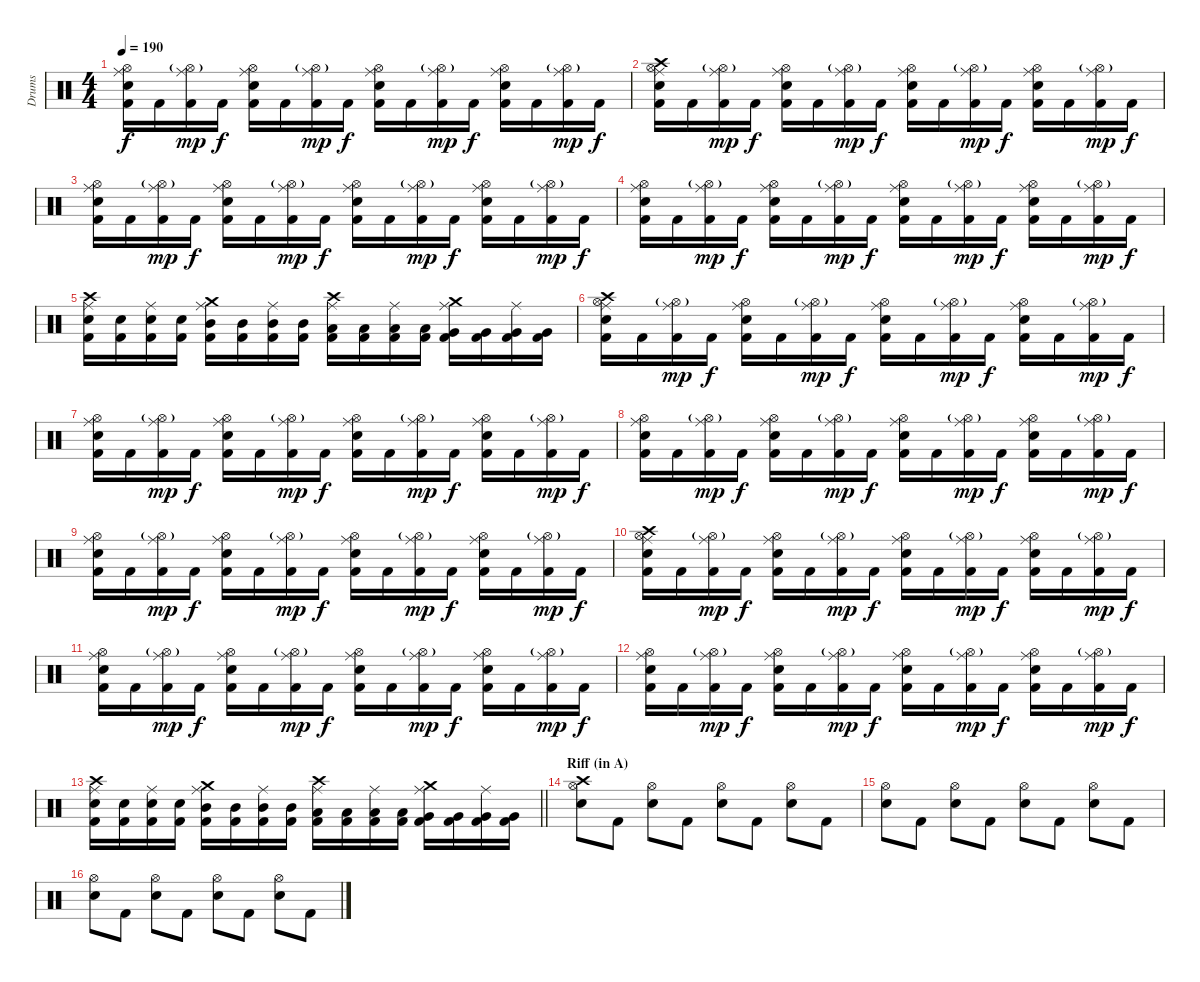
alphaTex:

\track ("Drums" "Drums") {instrument percussion}
\staff {score}
\articulation defaults
\ts (4 4)
\tempo 190
\clef neutral
\ks c
("Ride (middle)" "Hi-Hat (open)" "Snare (hit) 2" "Kick (hit) 2").16{dy f} "Kick (hit) 2".16 ("Ride (middle)" "Hi-Hat (open)"{g} "Kick (hit) 2").16{dy mp} "Kick (hit) 2".16{dy f} ("Ride (middle)" "Hi-Hat (open)" "Snare (hit) 2" "Kick (hit) 2").16 "Kick (hit) 2".16 ("Ride (middle)" "Hi-Hat (open)"{g} "Kick (hit) 2").16{dy mp} "Kick (hit) 2".16{dy f} ("Ride (middle)" "Hi-Hat (open)" "Snare (hit) 2" "Kick (hit) 2").16 "Kick (hit) 2".16 ("Ride (middle)" "Hi-Hat (open)"{g} "Kick (hit) 2").16{dy mp} "Kick (hit) 2".16{dy f} ("Ride (middle)" "Hi-Hat (open)" "Snare (hit) 2" "Kick (hit) 2").16 "Kick (hit) 2".16 ("Ride (middle)" "Hi-Hat (open)"{g} "Kick (hit) 2").16{dy mp} "Kick (hit) 2".16{dy f} |
("Crash high (hit)" "Ride (middle)" "Hi-Hat (open)" "Snare (hit) 2" "Kick (hit) 2").16 "Kick (hit) 2".16 ("Ride (middle)" "Hi-Hat (open)"{g} "Kick (hit) 2").16{dy mp} "Kick (hit) 2".16{dy f} ("Ride (middle)" "Hi-Hat (open)" "Snare (hit) 2" "Kick (hit) 2").16 "Kick (hit) 2".16 ("Ride (middle)" "Hi-Hat (open)"{g} "Kick (hit) 2").16{dy mp} "Kick (hit) 2".16{dy f} ("Ride (middle)" "Hi-Hat (open)" "Snare (hit) 2" "Kick (hit) 2").16 "Kick (hit) 2".16 ("Ride (middle)" "Hi-Hat (open)"{g} "Kick (hit) 2").16{dy mp} "Kick (hit) 2".16{dy f} ("Ride (middle)" "Hi-Hat (open)" "Snare (hit) 2" "Kick (hit) 2").16 "Kick (hit) 2".16 ("Ride (middle)" "Hi-Hat (open)"{g} "Kick (hit) 2").16{dy mp} "Kick (hit) 2".16{dy f} |
("Ride (middle)" "Hi-Hat (open)" "Snare (hit) 2" "Kick (hit) 2").16 "Kick (hit) 2".16 ("Ride (middle)" "Hi-Hat (open)"{g} "Kick (hit) 2").16{dy mp} "Kick (hit) 2".16{dy f} ("Ride (middle)" "Hi-Hat (open)" "Snare (hit) 2" "Kick (hit) 2").16 "Kick (hit) 2".16 ("Ride (middle)" "Hi-Hat (open)"{g} "Kick (hit) 2").16{dy mp} "Kick (hit) 2".16{dy f} ("Ride (middle)" "Hi-Hat (open)" "Snare (hit) 2" "Kick (hit) 2").16 "Kick (hit) 2".16 ("Ride (middle)" "Hi-Hat (open)"{g} "Kick (hit) 2").16{dy mp} "Kick (hit) 2".16{dy f} ("Ride (middle)" "Hi-Hat (open)" "Snare (hit) 2" "Kick (hit) 2").16 "Kick (hit) 2".16 ("Ride (middle)" "Hi-Hat (open)"{g} "Kick (hit) 2").16{dy mp} "Kick (hit) 2".16{dy f} |
("Ride (middle)" "Hi-Hat (open)" "Snare (hit) 2" "Kick (hit) 2").16 "Kick (hit) 2".16 ("Ride (middle)" "Hi-Hat (open)"{g} "Kick (hit) 2").16{dy mp} "Kick (hit) 2".16{dy f} ("Ride (middle)" "Hi-Hat (open)" "Snare (hit) 2" "Kick (hit) 2").16 "Kick (hit) 2".16 ("Ride (middle)" "Hi-Hat (open)"{g} "Kick (hit) 2").16{dy mp} "Kick (hit) 2".16{dy f} ("Ride (middle)" "Hi-Hat (open)" "Snare (hit) 2" "Kick (hit) 2").16 "Kick (hit) 2".16 ("Ride (middle)" "Hi-Hat (open)"{g} "Kick (hit) 2").16{dy mp} "Kick (hit) 2".16{dy f} ("Ride (middle)" "Hi-Hat (open)" "Snare (hit) 2" "Kick (hit) 2").16 "Kick (hit) 2".16 ("Ride (middle)" "Hi-Hat (open)"{g} "Kick (hit) 2").16{dy mp} "Kick (hit) 2".16{dy f} |
("Crash high (hit)" "Ride (middle)" "Snare (hit) 2" "Kick (hit) 2").16 ("Snare (hit) 2" "Kick (hit) 2").16 ("Ride (middle)" "Snare (hit) 2" "Kick (hit) 2").16 ("Snare (hit) 2" "Kick (hit) 2").16 ("Crash medium (hit)" "Ride (middle)" "Mid Tom (hit)" "Kick (hit) 2").16 ("Mid Tom (hit)" "Kick (hit) 2").16 ("Ride (middle)" "Mid Tom (hit)" "Kick (hit) 2").16 ("Mid Tom (hit)" "Kick (hit) 2").16 ("Crash high (hit)" "Ride (middle)" "Low Tom (hit)" "Kick (hit) 2").16 ("Low Tom (hit)" "Kick (hit) 2").16 ("Ride (middle)" "Low Tom (hit)" "Kick (hit) 2").16 ("Low Tom (hit)" "Kick (hit) 2").16 ("Crash medium (hit)" "Ride (middle)" "Very Low Tom (hit)" "Kick (hit) 2").16 ("Very Low Tom (hit)" "Kick (hit) 2").16 ("Ride (middle)" "Very Low Tom (hit)" "Kick (hit) 2").16 ("Very Low Tom (hit)" "Kick (hit) 2").16 |
("Crash high (hit)" "Ride (middle)" "Hi-Hat (open)" "Snare (hit) 2" "Kick (hit) 2").16 "Kick (hit) 2".16 ("Ride (middle)" "Hi-Hat (open)"{g} "Kick (hit) 2").16{dy mp} "Kick (hit) 2".16{dy f} ("Ride (middle)" "Hi-Hat (open)" "Snare (hit) 2" "Kick (hit) 2").16 "Kick (hit) 2".16 ("Ride (middle)" "Hi-Hat (open)"{g} "Kick (hit) 2").16{dy mp} "Kick (hit) 2".16{dy f} ("Ride (middle)" "Hi-Hat (open)" "Snare (hit) 2" "Kick (hit) 2").16 "Kick (hit) 2".16 ("Ride (middle)" "Hi-Hat (open)"{g} "Kick (hit) 2").16{dy mp} "Kick (hit) 2".16{dy f} ("Ride (middle)" "Hi-Hat (open)" "Snare (hit) 2" "Kick (hit) 2").16 "Kick (hit) 2".16 ("Ride (middle)" "Hi-Hat (open)"{g} "Kick (hit) 2").16{dy mp} "Kick (hit) 2".16{dy f} |
("Ride (middle)" "Hi-Hat (open)" "Snare (hit) 2" "Kick (hit) 2").16 "Kick (hit) 2".16 ("Ride (middle)" "Hi-Hat (open)"{g} "Kick (hit) 2").16{dy mp} "Kick (hit) 2".16{dy f} ("Ride (middle)" "Hi-Hat (open)" "Snare (hit) 2" "Kick (hit) 2").16 "Kick (hit) 2".16 ("Ride (middle)" "Hi-Hat (open)"{g} "Kick (hit) 2").16{dy mp} "Kick (hit) 2".16{dy f} ("Ride (middle)" "Hi-Hat (open)" "Snare (hit) 2" "Kick (hit) 2").16 "Kick (hit) 2".16 ("Ride (middle)" "Hi-Hat (open)"{g} "Kick (hit) 2").16{dy mp} "Kick (hit) 2".16{dy f} ("Ride (middle)" "Hi-Hat (open)" "Snare (hit) 2" "Kick (hit) 2").16 "Kick (hit) 2".16 ("Ride (middle)" "Hi-Hat (open)"{g} "Kick (hit) 2").16{dy mp} "Kick (hit) 2".16{dy f} |
("Ride (middle)" "Hi-Hat (open)" "Snare (hit) 2" "Kick (hit) 2").16 "Kick (hit) 2".16 ("Ride (middle)" "Hi-Hat (open)"{g} "Kick (hit) 2").16{dy mp} "Kick (hit) 2".16{dy f} ("Ride (middle)" "Hi-Hat (open)" "Snare (hit) 2" "Kick (hit) 2").16 "Kick (hit) 2".16 ("Ride (middle)" "Hi-Hat (open)"{g} "Kick (hit) 2").16{dy mp} "Kick (hit) 2".16{dy f} ("Ride (middle)" "Hi-Hat (open)" "Snare (hit) 2" "Kick (hit) 2").16 "Kick (hit) 2".16 ("Ride (middle)" "Hi-Hat (open)"{g} "Kick (hit) 2").16{dy mp} "Kick (hit) 2".16{dy f} ("Ride (middle)" "Hi-Hat (open)" "Snare (hit) 2" "Kick (hit) 2").16 "Kick (hit) 2".16 ("Ride (middle)" "Hi-Hat (open)"{g} "Kick (hit) 2").16{dy mp} "Kick (hit) 2".16{dy f} |
("Ride (middle)" "Hi-Hat (open)" "Snare (hit) 2" "Kick (hit) 2").16 "Kick (hit) 2".16 ("Ride (middle)" "Hi-Hat (open)"{g} "Kick (hit) 2").16{dy mp} "Kick (hit) 2".16{dy f} ("Ride (middle)" "Hi-Hat (open)" "Snare (hit) 2" "Kick (hit) 2").16 "Kick (hit) 2".16 ("Ride (middle)" "Hi-Hat (open)"{g} "Kick (hit) 2").16{dy mp} "Kick (hit) 2".16{dy f} ("Ride (middle)" "Hi-Hat (open)" "Snare (hit) 2" "Kick (hit) 2").16 "Kick (hit) 2".16 ("Ride (middle)" "Hi-Hat (open)"{g} "Kick (hit) 2").16{dy mp} "Kick (hit) 2".16{dy f} ("Ride (middle)" "Hi-Hat (open)" "Snare (hit) 2" "Kick (hit) 2").16 "Kick (hit) 2".16 ("Ride (middle)" "Hi-Hat (open)"{g} "Kick (hit) 2").16{dy mp} "Kick (hit) 2".16{dy f} |
("Crash high (hit)" "Ride (middle)" "Hi-Hat (open)" "Snare (hit) 2" "Kick (hit) 2").16 "Kick (hit) 2".16 ("Ride (middle)" "Hi-Hat (open)"{g} "Kick (hit) 2").16{dy mp} "Kick (hit) 2".16{dy f} ("Ride (middle)" "Hi-Hat (open)" "Snare (hit) 2" "Kick (hit) 2").16 "Kick (hit) 2".16 ("Ride (middle)" "Hi-Hat (open)"{g} "Kick (hit) 2").16{dy mp} "Kick (hit) 2".16{dy f} ("Ride (middle)" "Hi-Hat (open)" "Snare (hit) 2" "Kick (hit) 2").16 "Kick (hit) 2".16 ("Ride (middle)" "Hi-Hat (open)"{g} "Kick (hit) 2").16{dy mp} "Kick (hit) 2".16{dy f} ("Ride (middle)" "Hi-Hat (open)" "Snare (hit) 2" "Kick (hit) 2").16 "Kick (hit) 2".16 ("Ride (middle)" "Hi-Hat (open)"{g} "Kick (hit) 2").16{dy mp} "Kick (hit) 2".16{dy f} |
("Ride (middle)" "Hi-Hat (open)" "Snare (hit) 2" "Kick (hit) 2").16 "Kick (hit) 2".16 ("Ride (middle)" "Hi-Hat (open)"{g} "Kick (hit) 2").16{dy mp} "Kick (hit) 2".16{dy f} ("Ride (middle)" "Hi-Hat (open)" "Snare (hit) 2" "Kick (hit) 2").16 "Kick (hit) 2".16 ("Ride (middle)" "Hi-Hat (open)"{g} "Kick (hit) 2").16{dy mp} "Kick (hit) 2".16{dy f} ("Ride (middle)" "Hi-Hat (open)" "Snare (hit) 2" "Kick (hit) 2").16 "Kick (hit) 2".16 ("Ride (middle)" "Hi-Hat (open)"{g} "Kick (hit) 2").16{dy mp} "Kick (hit) 2".16{dy f} ("Ride (middle)" "Hi-Hat (open)" "Snare (hit) 2" "Kick (hit) 2").16 "Kick (hit) 2".16 ("Ride (middle)" "Hi-Hat (open)"{g} "Kick (hit) 2").16{dy mp} "Kick (hit) 2".16{dy f} |
("Ride (middle)" "Hi-Hat (open)" "Snare (hit) 2" "Kick (hit) 2").16 "Kick (hit) 2".16 ("Ride (middle)" "Hi-Hat (open)"{g} "Kick (hit) 2").16{dy mp} "Kick (hit) 2".16{dy f} ("Ride (middle)" "Hi-Hat (open)" "Snare (hit) 2" "Kick (hit) 2").16 "Kick (hit) 2".16 ("Ride (middle)" "Hi-Hat (open)"{g} "Kick (hit) 2").16{dy mp} "Kick (hit) 2".16{dy f} ("Ride (middle)" "Hi-Hat (open)" "Snare (hit) 2" "Kick (hit) 2").16 "Kick (hit) 2".16 ("Ride (middle)" "Hi-Hat (open)"{g} "Kick (hit) 2").16{dy mp} "Kick (hit) 2".16{dy f} ("Ride (middle)" "Hi-Hat (open)" "Snare (hit) 2" "Kick (hit) 2").16 "Kick (hit) 2".16 ("Ride (middle)" "Hi-Hat (open)"{g} "Kick (hit) 2").16{dy mp} "Kick (hit) 2".16{dy f} |
\barLineRight lightlight
("Crash high (hit)" "Ride (middle)" "Snare (hit) 2" "Kick (hit) 2").16 ("Snare (hit) 2" "Kick (hit) 2").16 ("Ride (middle)" "Snare (hit) 2" "Kick (hit) 2").16 ("Snare (hit) 2" "Kick (hit) 2").16 ("Crash medium (hit)" "Ride (middle)" "Mid Tom (hit)" "Kick (hit) 2").16 ("Mid Tom (hit)" "Kick (hit) 2").16 ("Ride (middle)" "Mid Tom (hit)" "Kick (hit) 2").16 ("Mid Tom (hit)" "Kick (hit) 2").16 ("Crash high (hit)" "Ride (middle)" "Low Tom (hit)" "Kick (hit) 2").16 ("Low Tom (hit)" "Kick (hit) 2").16 ("Ride (middle)" "Low Tom (hit)" "Kick (hit) 2").16 ("Low Tom (hit)" "Kick (hit) 2").16 ("Crash medium (hit)" "Ride (middle)" "Very Low Tom (hit)" "Kick (hit) 2").16 ("Very Low Tom (hit)" "Kick (hit) 2").16 ("Ride (middle)" "Very Low Tom (hit)" "Kick (hit) 2").16 ("Very Low Tom (hit)" "Kick (hit) 2").16 |
\section ("" "Riff (in A)")
("Crash high (hit)" "Hi-Hat (open)" "Snare (hit) 2").8 "Kick (hit) 2".8 ("Hi-Hat (open)" "Snare (hit) 2").8 "Kick (hit) 2".8 ("Hi-Hat (open)" "Snare (hit) 2").8 "Kick (hit) 2".8 ("Hi-Hat (open)" "Snare (hit) 2").8 "Kick (hit) 2".8 |
("Hi-Hat (open)" "Snare (hit) 2").8 "Kick (hit) 2".8 ("Hi-Hat (open)" "Snare (hit) 2").8 "Kick (hit) 2".8 ("Hi-Hat (open)" "Snare (hit) 2").8 "Kick (hit) 2".8 ("Hi-Hat (open)" "Snare (hit) 2").8 "Kick (hit) 2".8 |
("Hi-Hat (open)" "Snare (hit) 2").8 "Kick (hit) 2".8 ("Hi-Hat (open)" "Snare (hit) 2").8 "Kick (hit) 2".8 ("Hi-Hat (open)" "Snare (hit) 2").8 "Kick (hit) 2".8 ("Hi-Hat (open)" "Snare (hit) 2").8 "Kick (hit) 2".8
